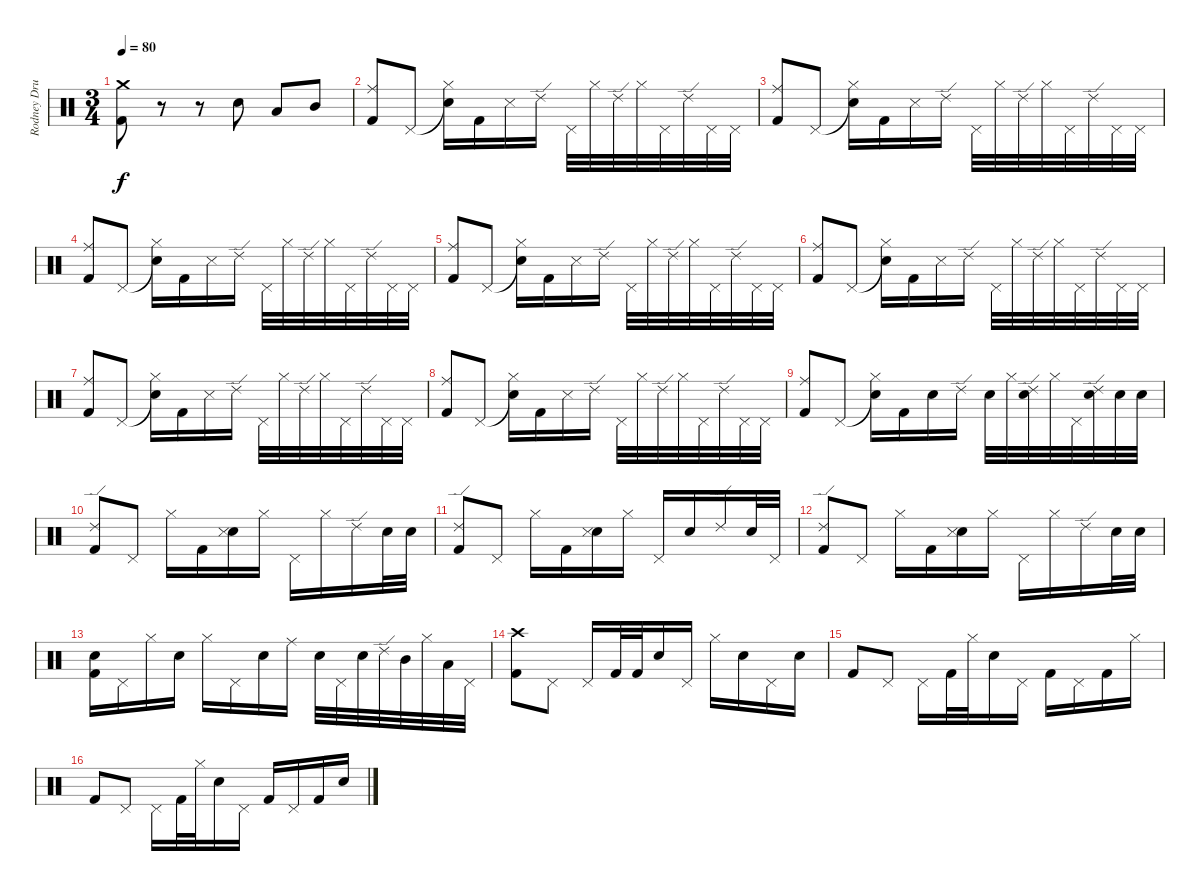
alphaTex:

\track ("Rodney Drums" "Rodney Dru") {instrument percussion}
\staff {score}
\articulation defaults
\ts (3 4)
\tempo 80
\clef neutral
\ks c
("Crash medium (hit)" "Kick (hit) 2").8{dy f} r.8 r.8 "Electric Snare (hit)".8 "Low Tom (hit)".8 "Mid Tom (hit)".8 |
("Ride (middle)" "Kick (hit) 2").8 "Pedal Hi-Hat (hit)".8 ("Snare (hit)"{t} "Hi-Hat (closed)").16 "Kick (hit) 2".16 "Snare (side stick) 3".16 "Ride (edge) 2".16 "Pedal Hi-Hat (hit)".32 "Hi-Hat (closed)".32 "Ride (edge) 2".32 "Hi-Hat (closed)".32 "Pedal Hi-Hat (hit)".32 "Ride (edge) 2".32 "Pedal Hi-Hat (hit)".32 "Pedal Hi-Hat (hit)".32 |
("Ride (middle)" "Kick (hit) 2").8 "Pedal Hi-Hat (hit)".8 ("Snare (hit)"{t} "Hi-Hat (closed)").16 "Kick (hit) 2".16 "Snare (side stick) 3".16 "Ride (edge) 2".16 "Pedal Hi-Hat (hit)".32 "Hi-Hat (closed)".32 "Ride (edge) 2".32 "Hi-Hat (closed)".32 "Pedal Hi-Hat (hit)".32 "Ride (edge) 2".32 "Pedal Hi-Hat (hit)".32 "Pedal Hi-Hat (hit)".32 |
("Ride (middle)" "Kick (hit) 2").8 "Pedal Hi-Hat (hit)".8 ("Snare (hit)"{t} "Hi-Hat (closed)").16 "Kick (hit) 2".16 "Snare (side stick) 3".16 "Ride (edge) 2".16 "Pedal Hi-Hat (hit)".32 "Hi-Hat (closed)".32 "Ride (edge) 2".32 "Hi-Hat (closed)".32 "Pedal Hi-Hat (hit)".32 "Ride (edge) 2".32 "Pedal Hi-Hat (hit)".32 "Pedal Hi-Hat (hit)".32 |
("Ride (middle)" "Kick (hit) 2").8 "Pedal Hi-Hat (hit)".8 ("Snare (hit)"{t} "Hi-Hat (closed)").16 "Kick (hit) 2".16 "Snare (side stick) 3".16 "Ride (edge) 2".16 "Pedal Hi-Hat (hit)".32 "Hi-Hat (closed)".32 "Ride (edge) 2".32 "Hi-Hat (closed)".32 "Pedal Hi-Hat (hit)".32 "Ride (edge) 2".32 "Pedal Hi-Hat (hit)".32 "Pedal Hi-Hat (hit)".32 |
("Ride (middle)" "Kick (hit) 2").8 "Pedal Hi-Hat (hit)".8 ("Snare (hit)"{t} "Hi-Hat (closed)").16 "Kick (hit) 2".16 "Snare (side stick) 3".16 "Ride (edge) 2".16 "Pedal Hi-Hat (hit)".32 "Hi-Hat (closed)".32 "Ride (edge) 2".32 "Hi-Hat (closed)".32 "Pedal Hi-Hat (hit)".32 "Ride (edge) 2".32 "Pedal Hi-Hat (hit)".32 "Pedal Hi-Hat (hit)".32 |
("Ride (middle)" "Kick (hit) 2").8 "Pedal Hi-Hat (hit)".8 ("Snare (hit)"{t} "Hi-Hat (closed)").16 "Kick (hit) 2".16 "Snare (side stick) 3".16 "Ride (edge) 2".16 "Pedal Hi-Hat (hit)".32 "Hi-Hat (closed)".32 "Ride (edge) 2".32 "Hi-Hat (closed)".32 "Pedal Hi-Hat (hit)".32 "Ride (edge) 2".32 "Pedal Hi-Hat (hit)".32 "Pedal Hi-Hat (hit)".32 |
("Ride (middle)" "Kick (hit) 2").8 "Pedal Hi-Hat (hit)".8 ("Snare (hit)"{t} "Hi-Hat (closed)").16 "Kick (hit) 2".16 "Snare (side stick) 3".16 "Ride (edge) 2".16 "Pedal Hi-Hat (hit)".32 "Hi-Hat (closed)".32 "Ride (edge) 2".32 "Hi-Hat (closed)".32 "Pedal Hi-Hat (hit)".32 "Ride (edge) 2".32 "Pedal Hi-Hat (hit)".32 "Pedal Hi-Hat (hit)".32 |
("Ride (middle)" "Kick (hit) 2").8 "Pedal Hi-Hat (hit)".8 ("Snare (hit)"{t} "Hi-Hat (closed)").16 "Kick (hit) 2".16 "Electric Snare (hit)".16 "Ride (edge) 2".16 "Electric Snare (hit)".32 "Hi-Hat (closed)".32 ("Electric Snare (hit)" "Ride (edge) 2").32 "Hi-Hat (closed)".32 "Pedal Hi-Hat (hit)".32 ("Electric Snare (hit)" "Ride (edge) 2").32 "Electric Snare (hit)".32 "Electric Snare (hit)".32 |
("Ride (edge) 2" "Kick (hit) 2").8 "Pedal Hi-Hat (hit)".8 "Hi-Hat (closed)".16 "Kick (hit) 2".16 ("Electric Snare (hit)" "Metronome (hit)").16 "Hi-Hat (closed)".16 "Pedal Hi-Hat (hit)".16 "Hi-Hat (closed)".16 "Ride (edge) 2".16 "Electric Snare (hit)".32 "Electric Snare (hit)".32 |
("Ride (edge) 2" "Kick (hit) 2").8 "Pedal Hi-Hat (hit)".8 "Hi-Hat (closed)".16 "Kick (hit) 2".16 ("Electric Snare (hit)" "Metronome (hit)").16 "Hi-Hat (closed)".16 "Pedal Hi-Hat (hit)".16 "Electric Snare (hit)".16 "Ride (edge) 2".16 "Electric Snare (hit)".32 "Pedal Hi-Hat (hit)".32 |
("Ride (edge) 2" "Kick (hit) 2").8 "Pedal Hi-Hat (hit)".8 "Hi-Hat (closed)".16 "Kick (hit) 2".16 ("Electric Snare (hit)" "Metronome (hit)").16 "Hi-Hat (closed)".16 "Pedal Hi-Hat (hit)".16 "Hi-Hat (closed)".16 "Ride (edge) 2".16 "Electric Snare (hit)".32 "Electric Snare (hit)".32 |
("Electric Snare (hit)" "Kick (hit) 2").16 "Pedal Hi-Hat (hit)".16 "Hi-Hat (closed)".16 "Electric Snare (hit)".16 "Hi-Hat (closed)".16 "Pedal Hi-Hat (hit)".16 "Electric Snare (hit)".16 "Ride (middle)".16 "Electric Snare (hit)".32 "Pedal Hi-Hat (hit)".32 "Electric Snare (hit)".32 "Ride (edge) 2".32 "Mid Tom (hit)".32 "Hi-Hat (closed)".32 "Low Tom (hit)".32 "Pedal Hi-Hat (hit)".32 |
("Crash high (hit)" "Kick (hit) 2").8 "Pedal Hi-Hat (hit)".8 "Pedal Hi-Hat (hit)".16 "Kick (hit) 2".32 "Kick (hit) 2".32 "Electric Snare (hit)".16 "Pedal Hi-Hat (hit)".16 "Hi-Hat (closed)".16 "Electric Snare (hit)".16 "Pedal Hi-Hat (hit)".16 "Electric Snare (hit)".16 |
"Kick (hit) 2".8 "Pedal Hi-Hat (hit)".8 "Pedal Hi-Hat (hit)".16 "Kick (hit) 2".32 "Hi-Hat (closed)".32 "Electric Snare (hit)".16 "Pedal Hi-Hat (hit)".16 "Kick (hit) 2".16 "Pedal Hi-Hat (hit)".16 "Kick (hit) 2".16 "Hi-Hat (closed)".16 |
"Kick (hit) 2".8 "Pedal Hi-Hat (hit)".8 "Pedal Hi-Hat (hit)".16 "Kick (hit) 2".32 "Hi-Hat (closed)".32 "Electric Snare (hit)".16 "Pedal Hi-Hat (hit)".16 "Kick (hit) 2".16 "Pedal Hi-Hat (hit)".16 "Kick (hit) 2".16 "Electric Snare (hit)".16
